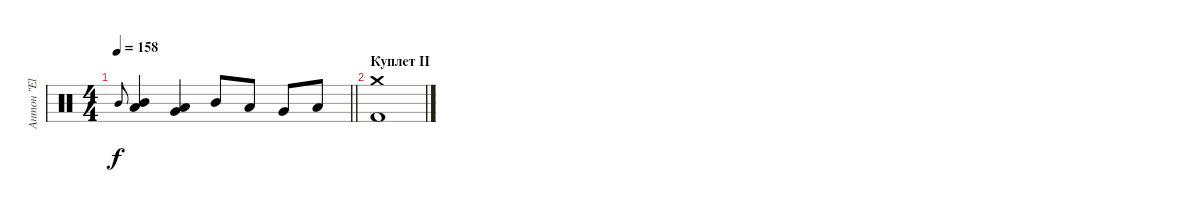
\track ("Антон \"El Bastardo\" Смольянин" "Антон \"El ") {instrument percussion}
\staff {score}
\articulation defaults
\ts (4 4)
\tempo 158
\clef neutral
\barLineRight lightlight
\ks c "Mid Tom (hit)".8{gr onbeat dy f}
("Mid Tom (hit)" "Low Tom (hit)").4 ("Low Tom (hit)" "Very Low Tom (hit)").4 "Mid Tom (hit)".8 "Low Tom (hit)".8 "Very Low Tom (hit)".8 "Low Floor Tom (hit)".8 |
\section ("" "Куплет II")
("Crash medium (hit)" "Kick (hit) 2").1
